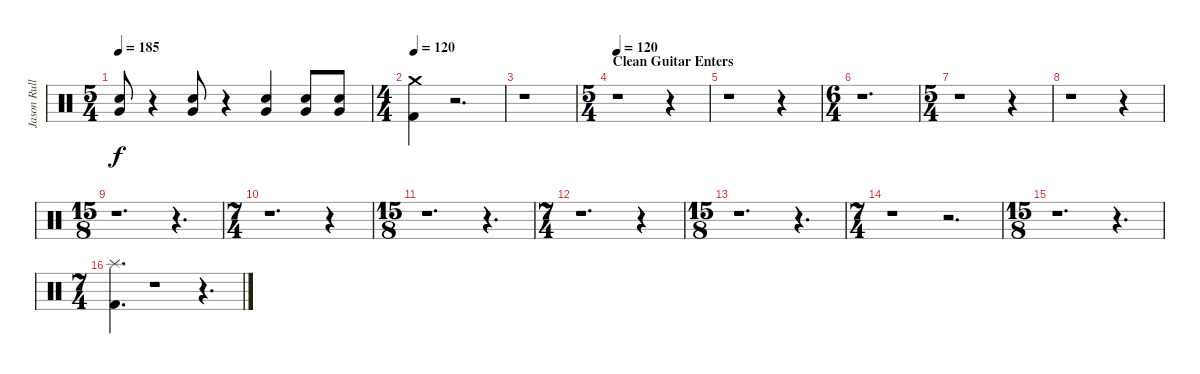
\track ("Jason Rullo" "Jason Rull") {instrument percussion}
\staff {score}
\articulation defaults
\ts (5 4)
\tempo 185
\clef neutral
\ks c
("Very Low Tom (hit)" "Electric Snare (hit)").8{dy f} r.4 ("Very Low Tom (hit)" "Electric Snare (hit)").8 r.4 ("Very Low Tom (hit)" "Electric Snare (hit)").4 ("Very Low Tom (hit)" "Electric Snare (hit)").8 ("Very Low Tom (hit)" "Electric Snare (hit)").8 |
\ts (4 4)
\tempo 132
\tempo 120
("Crash medium (hit)" "Kick (hit) 2").4 r.2{d} |
r.1 |
\ts (5 4)
\section ("" "Clean Guitar Enters")
\tempo 120
r.1 r.4 |
r.1 r.4 |
\ts (6 4)
r.1{d} |
\ts (5 4)
r.1 r.4 |
r.1 r.4 |
\ts (15 8)
r.1{d} r.4{d} |
\ts (7 4)
r.1{d} r.4 |
\ts (15 8)
r.1{d} r.4{d} |
\ts (7 4)
r.1{d} r.4 |
\ts (15 8)
r.1{d} r.4{d} |
\ts (7 4)
r.1 r.2{d} |
\ts (15 8)
r.1{d} r.4{d} |
\ts (7 4)
("Splash (hit)" "Kick (hit) 2").4{d} r.1 r.4{d}
